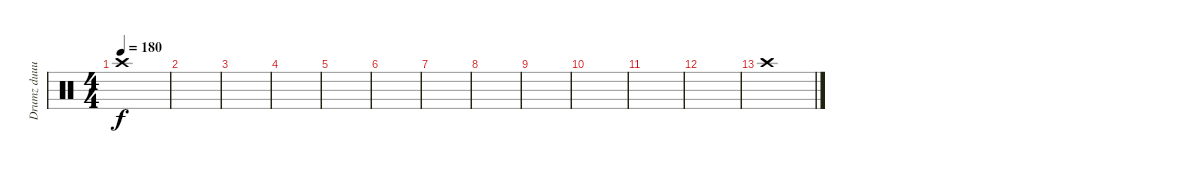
\track ("Drumz duuuuude" "Drumz duuu") {instrument percussion}
\staff {score}
\articulation defaults
\ts (4 4)
\tempo 180
\clef neutral
\ks c "Crash high (hit)".1{dy f}
|
|
|
|
|
|
|
|
|
|
|
|
"Crash high (hit)".1
